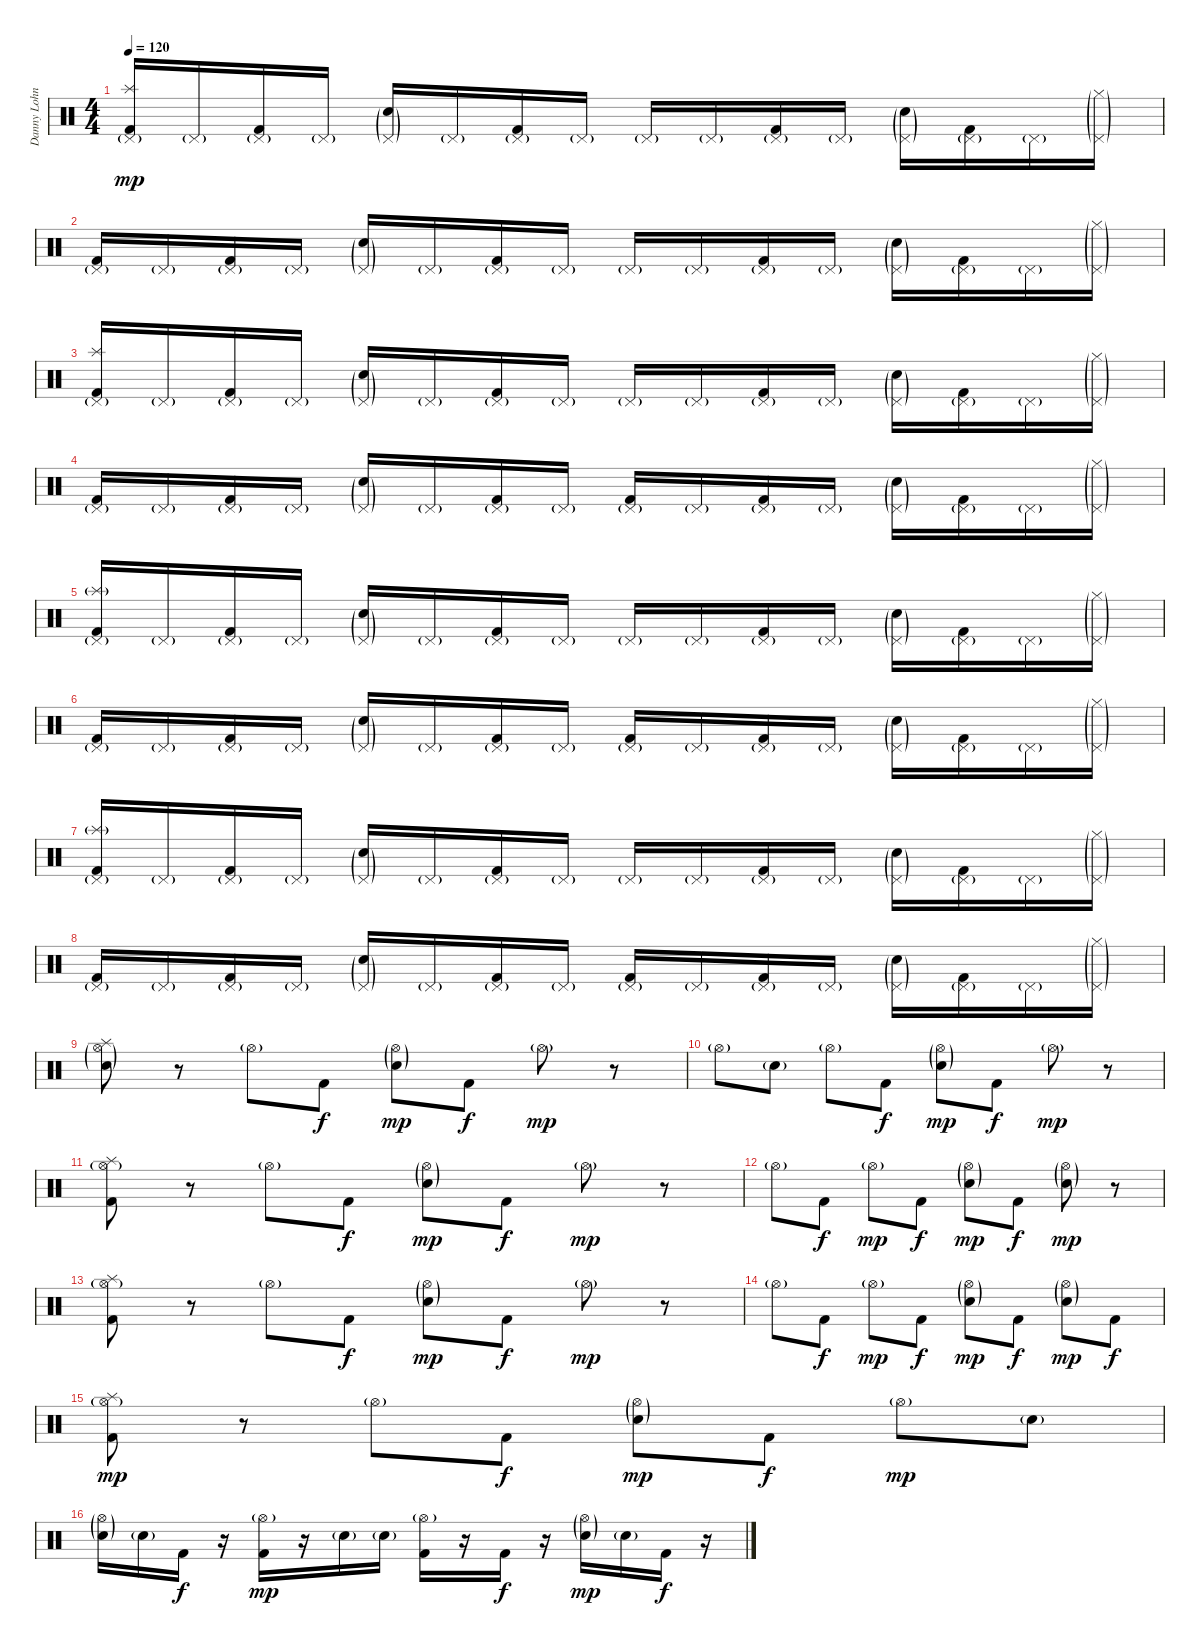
\track ("Danny Lohner" "Danny Lohn") {instrument percussion}
\staff {score}
\articulation defaults
\ts (4 4)
\tempo 120
\clef neutral
\ks c
("Pedal Hi-Hat (hit)"{g} "Splash (hit)" "Kick (hit) 2").16{dy mp} "Pedal Hi-Hat (hit)"{g}.16 ("Pedal Hi-Hat (hit)"{g} "Kick (hit) 2").16 "Pedal Hi-Hat (hit)"{g}.16 ("Pedal Hi-Hat (hit)"{g} "Electric Snare (hit)"{g}).16 "Pedal Hi-Hat (hit)"{g}.16 ("Pedal Hi-Hat (hit)"{g} "Kick (hit) 2").16 "Pedal Hi-Hat (hit)"{g}.16 "Pedal Hi-Hat (hit)"{g}.16 "Pedal Hi-Hat (hit)"{g}.16 ("Pedal Hi-Hat (hit)"{g} "Kick (hit) 2").16 "Pedal Hi-Hat (hit)"{g}.16 ("Pedal Hi-Hat (hit)"{g} "Electric Snare (hit)"{g}).16 ("Pedal Hi-Hat (hit)"{g} "Kick (hit) 2").16 "Pedal Hi-Hat (hit)"{g}.16 ("Pedal Hi-Hat (hit)"{g} "Hi-Hat (closed)"{g}).16 |
("Pedal Hi-Hat (hit)"{g} "Kick (hit) 2").16 "Pedal Hi-Hat (hit)"{g}.16 ("Pedal Hi-Hat (hit)"{g} "Kick (hit) 2").16 "Pedal Hi-Hat (hit)"{g}.16 ("Pedal Hi-Hat (hit)"{g} "Electric Snare (hit)"{g}).16 "Pedal Hi-Hat (hit)"{g}.16 ("Pedal Hi-Hat (hit)"{g} "Kick (hit) 2").16 "Pedal Hi-Hat (hit)"{g}.16 "Pedal Hi-Hat (hit)"{g}.16 "Pedal Hi-Hat (hit)"{g}.16 ("Pedal Hi-Hat (hit)"{g} "Kick (hit) 2").16 "Pedal Hi-Hat (hit)"{g}.16 ("Pedal Hi-Hat (hit)"{g} "Electric Snare (hit)"{g}).16 ("Pedal Hi-Hat (hit)"{g} "Kick (hit) 2").16 "Pedal Hi-Hat (hit)"{g}.16 ("Pedal Hi-Hat (hit)"{g} "Hi-Hat (closed)"{g}).16 |
("Pedal Hi-Hat (hit)"{g} "Splash (hit)" "Kick (hit) 2").16 "Pedal Hi-Hat (hit)"{g}.16 ("Pedal Hi-Hat (hit)"{g} "Kick (hit) 2").16 "Pedal Hi-Hat (hit)"{g}.16 ("Pedal Hi-Hat (hit)"{g} "Electric Snare (hit)"{g}).16 "Pedal Hi-Hat (hit)"{g}.16 ("Pedal Hi-Hat (hit)"{g} "Kick (hit) 2").16 "Pedal Hi-Hat (hit)"{g}.16 "Pedal Hi-Hat (hit)"{g}.16 "Pedal Hi-Hat (hit)"{g}.16 ("Pedal Hi-Hat (hit)"{g} "Kick (hit) 2").16 "Pedal Hi-Hat (hit)"{g}.16 ("Pedal Hi-Hat (hit)"{g} "Electric Snare (hit)"{g}).16 ("Pedal Hi-Hat (hit)"{g} "Kick (hit) 2").16 "Pedal Hi-Hat (hit)"{g}.16 ("Pedal Hi-Hat (hit)"{g} "Hi-Hat (closed)"{g}).16 |
("Pedal Hi-Hat (hit)"{g} "Kick (hit) 2").16 "Pedal Hi-Hat (hit)"{g}.16 ("Pedal Hi-Hat (hit)"{g} "Kick (hit) 2").16 "Pedal Hi-Hat (hit)"{g}.16 ("Pedal Hi-Hat (hit)"{g} "Electric Snare (hit)"{g}).16 "Pedal Hi-Hat (hit)"{g}.16 ("Pedal Hi-Hat (hit)"{g} "Kick (hit) 2").16 "Pedal Hi-Hat (hit)"{g}.16 ("Pedal Hi-Hat (hit)"{g} "Kick (hit) 2").16 "Pedal Hi-Hat (hit)"{g}.16 ("Pedal Hi-Hat (hit)"{g} "Kick (hit) 2").16 "Pedal Hi-Hat (hit)"{g}.16 ("Pedal Hi-Hat (hit)"{g} "Electric Snare (hit)"{g}).16 ("Pedal Hi-Hat (hit)"{g} "Kick (hit) 2").16 "Pedal Hi-Hat (hit)"{g}.16 ("Pedal Hi-Hat (hit)"{g} "Hi-Hat (closed)"{g}).16 |
("Pedal Hi-Hat (hit)"{g} "Splash (hit)"{g} "Kick (hit) 2").16 "Pedal Hi-Hat (hit)"{g}.16 ("Pedal Hi-Hat (hit)"{g} "Kick (hit) 2").16 "Pedal Hi-Hat (hit)"{g}.16 ("Pedal Hi-Hat (hit)"{g} "Electric Snare (hit)"{g}).16 "Pedal Hi-Hat (hit)"{g}.16 ("Pedal Hi-Hat (hit)"{g} "Kick (hit) 2").16 "Pedal Hi-Hat (hit)"{g}.16 "Pedal Hi-Hat (hit)"{g}.16 "Pedal Hi-Hat (hit)"{g}.16 ("Pedal Hi-Hat (hit)"{g} "Kick (hit) 2").16 "Pedal Hi-Hat (hit)"{g}.16 ("Pedal Hi-Hat (hit)"{g} "Electric Snare (hit)"{g}).16 ("Pedal Hi-Hat (hit)"{g} "Kick (hit) 2").16 "Pedal Hi-Hat (hit)"{g}.16 ("Pedal Hi-Hat (hit)"{g} "Hi-Hat (closed)"{g}).16 |
("Pedal Hi-Hat (hit)"{g} "Kick (hit) 2").16 "Pedal Hi-Hat (hit)"{g}.16 ("Pedal Hi-Hat (hit)"{g} "Kick (hit) 2").16 "Pedal Hi-Hat (hit)"{g}.16 ("Pedal Hi-Hat (hit)"{g} "Electric Snare (hit)"{g}).16 "Pedal Hi-Hat (hit)"{g}.16 ("Pedal Hi-Hat (hit)"{g} "Kick (hit) 2").16 "Pedal Hi-Hat (hit)"{g}.16 ("Pedal Hi-Hat (hit)"{g} "Kick (hit) 2").16 "Pedal Hi-Hat (hit)"{g}.16 ("Pedal Hi-Hat (hit)"{g} "Kick (hit) 2").16 "Pedal Hi-Hat (hit)"{g}.16 ("Pedal Hi-Hat (hit)"{g} "Electric Snare (hit)"{g}).16 ("Pedal Hi-Hat (hit)"{g} "Kick (hit) 2").16 "Pedal Hi-Hat (hit)"{g}.16 ("Pedal Hi-Hat (hit)"{g} "Hi-Hat (closed)"{g}).16 |
("Pedal Hi-Hat (hit)"{g} "Splash (hit)"{g} "Kick (hit) 2").16 "Pedal Hi-Hat (hit)"{g}.16 ("Pedal Hi-Hat (hit)"{g} "Kick (hit) 2").16 "Pedal Hi-Hat (hit)"{g}.16 ("Pedal Hi-Hat (hit)"{g} "Electric Snare (hit)"{g}).16 "Pedal Hi-Hat (hit)"{g}.16 ("Pedal Hi-Hat (hit)"{g} "Kick (hit) 2").16 "Pedal Hi-Hat (hit)"{g}.16 "Pedal Hi-Hat (hit)"{g}.16 "Pedal Hi-Hat (hit)"{g}.16 ("Pedal Hi-Hat (hit)"{g} "Kick (hit) 2").16 "Pedal Hi-Hat (hit)"{g}.16 ("Pedal Hi-Hat (hit)"{g} "Electric Snare (hit)"{g}).16 ("Pedal Hi-Hat (hit)"{g} "Kick (hit) 2").16 "Pedal Hi-Hat (hit)"{g}.16 ("Pedal Hi-Hat (hit)"{g} "Hi-Hat (closed)"{g}).16 |
("Pedal Hi-Hat (hit)"{g} "Kick (hit) 2").16 "Pedal Hi-Hat (hit)"{g}.16 ("Pedal Hi-Hat (hit)"{g} "Kick (hit) 2").16 "Pedal Hi-Hat (hit)"{g}.16 ("Pedal Hi-Hat (hit)"{g} "Electric Snare (hit)"{g}).16 "Pedal Hi-Hat (hit)"{g}.16 ("Pedal Hi-Hat (hit)"{g} "Kick (hit) 2").16 "Pedal Hi-Hat (hit)"{g}.16 ("Pedal Hi-Hat (hit)"{g} "Kick (hit) 2").16 "Pedal Hi-Hat (hit)"{g}.16 ("Pedal Hi-Hat (hit)"{g} "Kick (hit) 2").16 "Pedal Hi-Hat (hit)"{g}.16 ("Pedal Hi-Hat (hit)"{g} "Electric Snare (hit)"{g}).16 ("Pedal Hi-Hat (hit)"{g} "Kick (hit) 2").16 "Pedal Hi-Hat (hit)"{g}.16 ("Pedal Hi-Hat (hit)"{g} "Hi-Hat (closed)"{g}).16 |
("Hi-Hat (open)"{g} "Splash (hit)" "Electric Snare (hit)"{g}).8 r.8 "Hi-Hat (open)"{g}.8 "Kick (hit) 2".8{dy f} ("Hi-Hat (open)"{g} "Electric Snare (hit)"{g}).8{dy mp} "Kick (hit) 2".8{dy f} "Hi-Hat (open)"{g}.8{dy mp} r.8 |
"Hi-Hat (open)"{g}.8 "Electric Snare (hit)"{g}.8 "Hi-Hat (open)"{g}.8 "Kick (hit) 2".8{dy f} ("Hi-Hat (open)"{g} "Electric Snare (hit)"{g}).8{dy mp} "Kick (hit) 2".8{dy f} "Hi-Hat (open)"{g}.8{dy mp} r.8 |
("Hi-Hat (open)"{g} "Splash (hit)" "Kick (hit) 2").8 r.8 "Hi-Hat (open)"{g}.8 "Kick (hit) 2".8{dy f} ("Hi-Hat (open)"{g} "Electric Snare (hit)"{g}).8{dy mp} "Kick (hit) 2".8{dy f} "Hi-Hat (open)"{g}.8{dy mp} r.8 |
"Hi-Hat (open)"{g}.8 "Kick (hit) 2".8{dy f} "Hi-Hat (open)"{g}.8{dy mp} "Kick (hit) 2".8{dy f} ("Hi-Hat (open)"{g} "Electric Snare (hit)"{g}).8{dy mp} "Kick (hit) 2".8{dy f} ("Hi-Hat (open)"{g} "Electric Snare (hit)"{g}).8{dy mp} r.8 |
("Hi-Hat (open)"{g} "Splash (hit)" "Kick (hit) 2").8 r.8 "Hi-Hat (open)"{g}.8 "Kick (hit) 2".8{dy f} ("Hi-Hat (open)"{g} "Electric Snare (hit)"{g}).8{dy mp} "Kick (hit) 2".8{dy f} "Hi-Hat (open)"{g}.8{dy mp} r.8 |
"Hi-Hat (open)"{g}.8 "Kick (hit) 2".8{dy f} "Hi-Hat (open)"{g}.8{dy mp} "Kick (hit) 2".8{dy f} ("Hi-Hat (open)"{g} "Electric Snare (hit)"{g}).8{dy mp} "Kick (hit) 2".8{dy f} ("Hi-Hat (open)"{g} "Electric Snare (hit)"{g}).8{dy mp} "Kick (hit) 2".8{dy f} |
("Hi-Hat (open)"{g} "Splash (hit)" "Kick (hit) 2").8{dy mp} r.8 "Hi-Hat (open)"{g}.8 "Kick (hit) 2".8{dy f} ("Hi-Hat (open)"{g} "Electric Snare (hit)"{g}).8{dy mp} "Kick (hit) 2".8{dy f} "Hi-Hat (open)"{g}.8{dy mp} "Electric Snare (hit)"{g}.8 |
("Hi-Hat (open)"{g} "Electric Snare (hit)"{g}).16 "Electric Snare (hit)"{g}.16 "Kick (hit) 2".16{dy f} r.16 ("Hi-Hat (open)"{g} "Kick (hit) 2").16{dy mp} r.16 "Electric Snare (hit)"{g}.16 "Electric Snare (hit)"{g}.16 ("Hi-Hat (open)"{g} "Kick (hit) 2").16 r.16 "Kick (hit) 2".16{dy f} r.16 ("Hi-Hat (open)"{g} "Electric Snare (hit)"{g}).16{dy mp} "Electric Snare (hit)"{g}.16 "Kick (hit) 2".16{dy f} r.16
